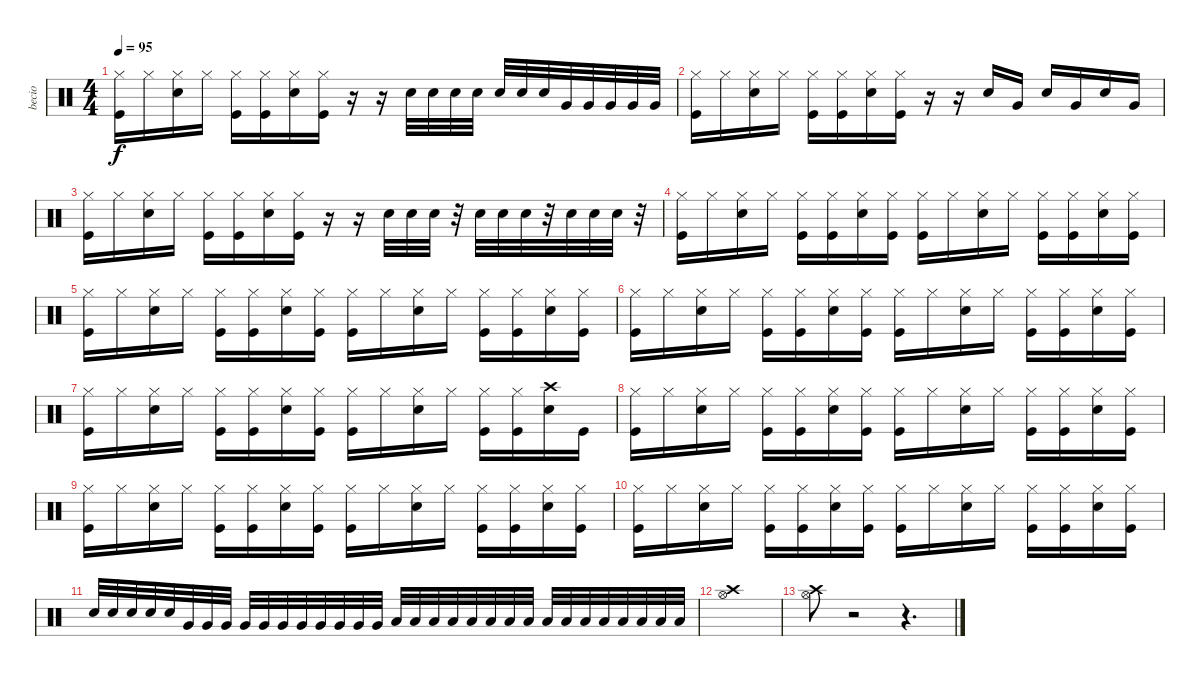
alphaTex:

\track ("becio" "becio") {instrument percussion}
\staff {score}
\articulation defaults
\ts (4 4)
\tempo 95
\clef neutral
\ks c
("Kick (hit)" "Hi-Hat (closed)").16{dy f} "Hi-Hat (closed)".16 ("Electric Snare (hit)" "Hi-Hat (closed)").16 "Hi-Hat (closed)".16 ("Kick (hit)" "Hi-Hat (closed)").16 ("Kick (hit)" "Hi-Hat (closed)").16 ("Electric Snare (hit)" "Hi-Hat (closed)").16 ("Kick (hit)" "Hi-Hat (closed)").16 r.16 r.16 "Electric Snare (hit)".32 "Electric Snare (hit)".32 "Electric Snare (hit)".32 "Electric Snare (hit)".32 "Electric Snare (hit)".32 "Electric Snare (hit)".32 "Electric Snare (hit)".32 "Very Low Tom (hit)".32 "Very Low Tom (hit)".32 "Very Low Tom (hit)".32 "Very Low Tom (hit)".32 "Very Low Tom (hit)".32 |
("Kick (hit)" "Hi-Hat (closed)").16 "Hi-Hat (closed)".16 ("Electric Snare (hit)" "Hi-Hat (closed)").16 "Hi-Hat (closed)".16 ("Kick (hit)" "Hi-Hat (closed)").16 ("Kick (hit)" "Hi-Hat (closed)").16 ("Electric Snare (hit)" "Hi-Hat (closed)").16 ("Kick (hit)" "Hi-Hat (closed)").16 r.16 r.16 "Electric Snare (hit)".16 "Very Low Tom (hit)".16 "Electric Snare (hit)".16 "Very Low Tom (hit)".16 "Electric Snare (hit)".16 "Very Low Tom (hit)".16 |
("Kick (hit)" "Hi-Hat (closed)").16 "Hi-Hat (closed)".16 ("Electric Snare (hit)" "Hi-Hat (closed)").16 "Hi-Hat (closed)".16 ("Kick (hit)" "Hi-Hat (closed)").16 ("Kick (hit)" "Hi-Hat (closed)").16 ("Electric Snare (hit)" "Hi-Hat (closed)").16 ("Kick (hit)" "Hi-Hat (closed)").16 r.16 r.16 "Electric Snare (hit)".32 "Electric Snare (hit)".32 "Electric Snare (hit)".32 r.32 "Electric Snare (hit)".32 "Electric Snare (hit)".32 "Electric Snare (hit)".32 r.32 "Electric Snare (hit)".32 "Electric Snare (hit)".32 "Electric Snare (hit)".32 r.32 |
("Kick (hit)" "Hi-Hat (closed)").16 "Hi-Hat (closed)".16 ("Electric Snare (hit)" "Hi-Hat (closed)").16 "Hi-Hat (closed)".16 ("Kick (hit)" "Hi-Hat (closed)").16 ("Kick (hit)" "Hi-Hat (closed)").16 ("Electric Snare (hit)" "Hi-Hat (closed)").16 ("Kick (hit)" "Hi-Hat (closed)").16 ("Kick (hit)" "Hi-Hat (closed)").16 "Hi-Hat (closed)".16 ("Electric Snare (hit)" "Hi-Hat (closed)").16 "Hi-Hat (closed)".16 ("Kick (hit)" "Hi-Hat (closed)").16 ("Kick (hit)" "Hi-Hat (closed)").16 ("Electric Snare (hit)" "Hi-Hat (closed)").16 ("Kick (hit)" "Hi-Hat (closed)").16 |
("Kick (hit)" "Hi-Hat (closed)").16 "Hi-Hat (closed)".16 ("Electric Snare (hit)" "Hi-Hat (closed)").16 "Hi-Hat (closed)".16 ("Kick (hit)" "Hi-Hat (closed)").16 ("Kick (hit)" "Hi-Hat (closed)").16 ("Electric Snare (hit)" "Hi-Hat (closed)").16 ("Kick (hit)" "Hi-Hat (closed)").16 ("Kick (hit)" "Hi-Hat (closed)").16 "Hi-Hat (closed)".16 ("Electric Snare (hit)" "Hi-Hat (closed)").16 "Hi-Hat (closed)".16 ("Kick (hit)" "Hi-Hat (closed)").16 ("Kick (hit)" "Hi-Hat (closed)").16 ("Electric Snare (hit)" "Hi-Hat (closed)").16 ("Kick (hit)" "Hi-Hat (closed)").16 |
("Kick (hit)" "Hi-Hat (closed)").16 "Hi-Hat (closed)".16 ("Electric Snare (hit)" "Hi-Hat (closed)").16 "Hi-Hat (closed)".16 ("Kick (hit)" "Hi-Hat (closed)").16 ("Kick (hit)" "Hi-Hat (closed)").16 ("Electric Snare (hit)" "Hi-Hat (closed)").16 ("Kick (hit)" "Hi-Hat (closed)").16 ("Kick (hit)" "Hi-Hat (closed)").16 "Hi-Hat (closed)".16 ("Electric Snare (hit)" "Hi-Hat (closed)").16 "Hi-Hat (closed)".16 ("Kick (hit)" "Hi-Hat (closed)").16 ("Kick (hit)" "Hi-Hat (closed)").16 ("Electric Snare (hit)" "Hi-Hat (closed)").16 ("Kick (hit)" "Hi-Hat (closed)").16 |
("Kick (hit)" "Hi-Hat (closed)").16 "Hi-Hat (closed)".16 ("Electric Snare (hit)" "Hi-Hat (closed)").16 "Hi-Hat (closed)".16 ("Kick (hit)" "Hi-Hat (closed)").16 ("Kick (hit)" "Hi-Hat (closed)").16 ("Electric Snare (hit)" "Hi-Hat (closed)").16 ("Kick (hit)" "Hi-Hat (closed)").16 ("Kick (hit)" "Hi-Hat (closed)").16 "Hi-Hat (closed)".16 ("Electric Snare (hit)" "Hi-Hat (closed)").16 "Hi-Hat (closed)".16 ("Kick (hit)" "Hi-Hat (closed)").16 ("Kick (hit)" "Hi-Hat (closed)").16 ("Electric Snare (hit)" "Crash high (hit)").16 "Kick (hit)".16 |
("Kick (hit)" "Hi-Hat (closed)").16 "Hi-Hat (closed)".16 ("Electric Snare (hit)" "Hi-Hat (closed)").16 "Hi-Hat (closed)".16 ("Kick (hit)" "Hi-Hat (closed)").16 ("Kick (hit)" "Hi-Hat (closed)").16 ("Electric Snare (hit)" "Hi-Hat (closed)").16 ("Kick (hit)" "Hi-Hat (closed)").16 ("Kick (hit)" "Hi-Hat (closed)").16 "Hi-Hat (closed)".16 ("Electric Snare (hit)" "Hi-Hat (closed)").16 "Hi-Hat (closed)".16 ("Kick (hit)" "Hi-Hat (closed)").16 ("Kick (hit)" "Hi-Hat (closed)").16 ("Electric Snare (hit)" "Hi-Hat (closed)").16 ("Kick (hit)" "Hi-Hat (closed)").16 |
("Kick (hit)" "Hi-Hat (closed)").16 "Hi-Hat (closed)".16 ("Electric Snare (hit)" "Hi-Hat (closed)").16 "Hi-Hat (closed)".16 ("Kick (hit)" "Hi-Hat (closed)").16 ("Kick (hit)" "Hi-Hat (closed)").16 ("Electric Snare (hit)" "Hi-Hat (closed)").16 ("Kick (hit)" "Hi-Hat (closed)").16 ("Kick (hit)" "Hi-Hat (closed)").16 "Hi-Hat (closed)".16 ("Electric Snare (hit)" "Hi-Hat (closed)").16 "Hi-Hat (closed)".16 ("Kick (hit)" "Hi-Hat (closed)").16 ("Kick (hit)" "Hi-Hat (closed)").16 ("Electric Snare (hit)" "Hi-Hat (closed)").16 ("Kick (hit)" "Hi-Hat (closed)").16 |
("Kick (hit)" "Hi-Hat (closed)").16 "Hi-Hat (closed)".16 ("Electric Snare (hit)" "Hi-Hat (closed)").16 "Hi-Hat (closed)".16 ("Kick (hit)" "Hi-Hat (closed)").16 ("Kick (hit)" "Hi-Hat (closed)").16 ("Electric Snare (hit)" "Hi-Hat (closed)").16 ("Kick (hit)" "Hi-Hat (closed)").16 ("Kick (hit)" "Hi-Hat (closed)").16 "Hi-Hat (closed)".16 ("Electric Snare (hit)" "Hi-Hat (closed)").16 "Hi-Hat (closed)".16 ("Kick (hit)" "Hi-Hat (closed)").16 ("Kick (hit)" "Hi-Hat (closed)").16 ("Electric Snare (hit)" "Hi-Hat (closed)").16 ("Kick (hit)" "Hi-Hat (closed)").16 |
"Electric Snare (hit)".32 "Electric Snare (hit)".32 "Electric Snare (hit)".32 "Electric Snare (hit)".32 "Electric Snare (hit)".32 "Very Low Tom (hit)".32 "Very Low Tom (hit)".32 "Very Low Tom (hit)".32 "Very Low Tom (hit)".32 "Very Low Tom (hit)".32 "Very Low Tom (hit)".32 "Very Low Tom (hit)".32 "Very Low Tom (hit)".32 "Very Low Tom (hit)".32 "Very Low Tom (hit)".32 "Very Low Tom (hit)".32 "Low Tom (hit)".32 "Low Tom (hit)".32 "Low Tom (hit)".32 "Low Tom (hit)".32 "Low Tom (hit)".32 "Low Tom (hit)".32 "Low Tom (hit)".32 "Low Tom (hit)".32 "Low Tom (hit)".32 "Low Tom (hit)".32 "Low Tom (hit)".32 "Low Tom (hit)".32 "Low Tom (hit)".32 "Low Tom (hit)".32 "Low Tom (hit)".32 "Low Tom (hit)".32 |
("Hi-Hat (open)" "Crash high (hit)").1 |
("Hi-Hat (open)" "Crash high (hit)").8 r.2 r.4{d}
